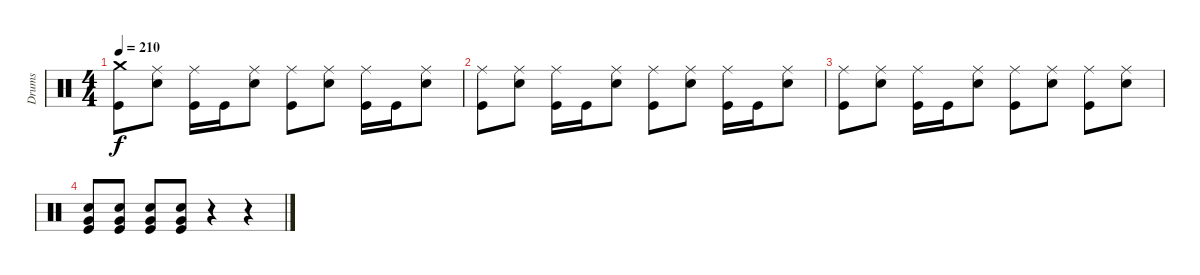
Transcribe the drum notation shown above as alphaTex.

\track ("Drums" "Drums") {instrument percussion}
\staff {score}
\articulation defaults
\ts (4 4)
\tempo 210
\clef neutral
\ks c
("Kick (hit)" "Crash medium (hit)").8{dy f} ("Electric Snare (hit)" "Ride (middle)").8 ("Kick (hit)" "Ride (middle)").16 "Kick (hit)".16 ("Electric Snare (hit)" "Ride (middle)").8 ("Kick (hit)" "Ride (middle)").8 ("Electric Snare (hit)" "Ride (middle)").8 ("Kick (hit)" "Ride (middle)").16 "Kick (hit)".16 ("Electric Snare (hit)" "Ride (middle)").8 |
("Kick (hit)" "Ride (middle)").8 ("Electric Snare (hit)" "Ride (middle)").8 ("Kick (hit)" "Ride (middle)").16 "Kick (hit)".16 ("Electric Snare (hit)" "Ride (middle)").8 ("Kick (hit)" "Ride (middle)").8 ("Electric Snare (hit)" "Ride (middle)").8 ("Kick (hit)" "Ride (middle)").16 "Kick (hit)".16 ("Electric Snare (hit)" "Ride (middle)").8 |
("Kick (hit)" "Ride (middle)").8 ("Electric Snare (hit)" "Ride (middle)").8 ("Kick (hit)" "Ride (middle)").16 "Kick (hit)".16 ("Electric Snare (hit)" "Ride (middle)").8 ("Kick (hit)" "Ride (middle)").8 ("Electric Snare (hit)" "Ride (middle)").8 ("Kick (hit)" "Ride (middle)").8 ("Electric Snare (hit)" "Ride (middle)").8 |
("Kick (hit)" "Electric Snare (hit)" "Very Low Tom (hit)").8 ("Kick (hit)" "Electric Snare (hit)" "Very Low Tom (hit)").8 ("Kick (hit)" "Electric Snare (hit)" "Very Low Tom (hit)").8 ("Kick (hit)" "Electric Snare (hit)" "Very Low Tom (hit)").8 r.4 r.4
